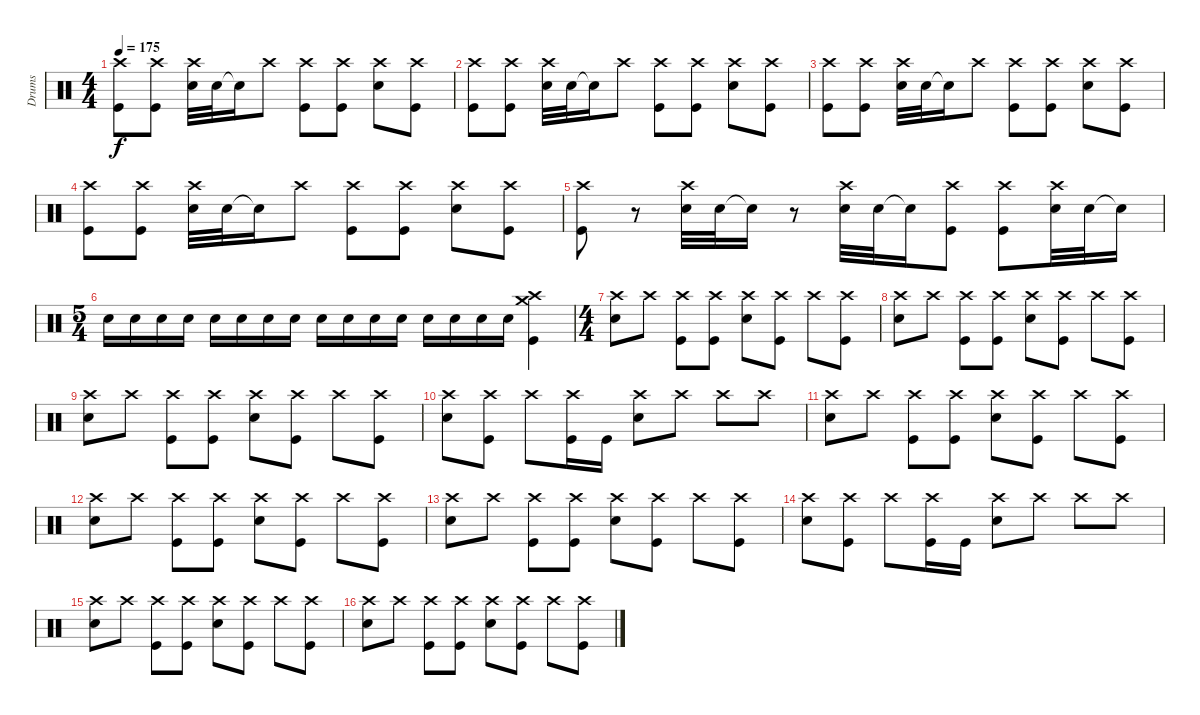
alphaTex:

\track ("Drums" "Drums") {instrument percussion}
\staff {score}
\articulation defaults
\ts (4 4)
\tempo 175
\clef neutral
\ks c
("Crash high (hit)" "Kick (hit)").8{dy f} ("Crash high (hit)" "Kick (hit)").8 ("Crash high (hit)" "Snare (hit) 2").32 "Snare (hit) 2".32 "Snare (hit)"{t}.16 "Crash high (hit)".8 ("Crash high (hit)" "Kick (hit)").8 ("Crash high (hit)" "Kick (hit)").8 ("Crash high (hit)" "Snare (hit) 2").8 ("Crash high (hit)" "Kick (hit)").8 |
("Crash high (hit)" "Kick (hit)").8 ("Crash high (hit)" "Kick (hit)").8 ("Crash high (hit)" "Snare (hit) 2").32 "Snare (hit) 2".32 "Snare (hit)"{t}.16 "Crash high (hit)".8 ("Crash high (hit)" "Kick (hit)").8 ("Crash high (hit)" "Kick (hit)").8 ("Crash high (hit)" "Snare (hit) 2").8 ("Crash high (hit)" "Kick (hit)").8 |
("Crash high (hit)" "Kick (hit)").8 ("Crash high (hit)" "Kick (hit)").8 ("Crash high (hit)" "Snare (hit) 2").32 "Snare (hit) 2".32 "Snare (hit)"{t}.16 "Crash high (hit)".8 ("Crash high (hit)" "Kick (hit)").8 ("Crash high (hit)" "Kick (hit)").8 ("Crash high (hit)" "Snare (hit) 2").8 ("Crash high (hit)" "Kick (hit)").8 |
("Crash high (hit)" "Kick (hit)").8 ("Crash high (hit)" "Kick (hit)").8 ("Crash high (hit)" "Snare (hit) 2").32 "Snare (hit) 2".32 "Snare (hit)"{t}.16 "Crash high (hit)".8 ("Crash high (hit)" "Kick (hit)").8 ("Crash high (hit)" "Kick (hit)").8 ("Crash high (hit)" "Snare (hit) 2").8 ("Crash high (hit)" "Kick (hit)").8 |
("Crash high (hit)" "Kick (hit)").8 r.8 ("Crash high (hit)" "Snare (hit) 2").32 "Snare (hit) 2".32 "Snare (hit)"{t}.16 r.8 ("Crash high (hit)" "Snare (hit) 2").32 "Snare (hit) 2".32 "Snare (hit)"{t}.16 ("Crash high (hit)" "Kick (hit)").8 ("Crash high (hit)" "Kick (hit)").8 ("Crash high (hit)" "Snare (hit) 2").32 "Snare (hit) 2".32 "Snare (hit)"{t}.16 |
\ts (5 4)
"Snare (hit) 2".16 "Snare (hit) 2".16 "Snare (hit) 2".16 "Snare (hit) 2".16 "Snare (hit) 2".16 "Snare (hit) 2".16 "Snare (hit) 2".16 "Snare (hit) 2".16 "Snare (hit) 2".16 "Snare (hit) 2".16 "Snare (hit) 2".16 "Snare (hit) 2".16 "Snare (hit) 2".16 "Snare (hit) 2".16 "Snare (hit) 2".16 "Snare (hit) 2".16 ("Crash medium (hit)" "Crash high (hit)" "Kick (hit)").4 |
\ts (4 4)
("Crash high (hit)" "Snare (hit) 2").8 "Crash high (hit)".8 ("Crash high (hit)" "Kick (hit)").8 ("Crash high (hit)" "Kick (hit)").8 ("Crash high (hit)" "Snare (hit) 2").8 ("Crash high (hit)" "Kick (hit)").8 "Crash high (hit)".8 ("Crash high (hit)" "Kick (hit)").8 |
("Crash high (hit)" "Snare (hit) 2").8 "Crash high (hit)".8 ("Crash high (hit)" "Kick (hit)").8 ("Crash high (hit)" "Kick (hit)").8 ("Crash high (hit)" "Snare (hit) 2").8 ("Crash high (hit)" "Kick (hit)").8 "Crash high (hit)".8 ("Crash high (hit)" "Kick (hit)").8 |
("Crash high (hit)" "Snare (hit) 2").8 "Crash high (hit)".8 ("Crash high (hit)" "Kick (hit)").8 ("Crash high (hit)" "Kick (hit)").8 ("Crash high (hit)" "Snare (hit) 2").8 ("Crash high (hit)" "Kick (hit)").8 "Crash high (hit)".8 ("Crash high (hit)" "Kick (hit)").8 |
("Crash high (hit)" "Snare (hit) 2").8 ("Crash high (hit)" "Kick (hit)").8 "Crash high (hit)".8 ("Crash high (hit)" "Kick (hit)").16 "Kick (hit)".16 ("Crash high (hit)" "Snare (hit) 2").8 "Crash high (hit)".8 "Crash high (hit)".8 "Crash high (hit)".8 |
("Crash high (hit)" "Snare (hit) 2").8 "Crash high (hit)".8 ("Crash high (hit)" "Kick (hit)").8 ("Crash high (hit)" "Kick (hit)").8 ("Crash high (hit)" "Snare (hit) 2").8 ("Crash high (hit)" "Kick (hit)").8 "Crash high (hit)".8 ("Crash high (hit)" "Kick (hit)").8 |
("Crash high (hit)" "Snare (hit) 2").8 "Crash high (hit)".8 ("Crash high (hit)" "Kick (hit)").8 ("Crash high (hit)" "Kick (hit)").8 ("Crash high (hit)" "Snare (hit) 2").8 ("Crash high (hit)" "Kick (hit)").8 "Crash high (hit)".8 ("Crash high (hit)" "Kick (hit)").8 |
("Crash high (hit)" "Snare (hit) 2").8 "Crash high (hit)".8 ("Crash high (hit)" "Kick (hit)").8 ("Crash high (hit)" "Kick (hit)").8 ("Crash high (hit)" "Snare (hit) 2").8 ("Crash high (hit)" "Kick (hit)").8 "Crash high (hit)".8 ("Crash high (hit)" "Kick (hit)").8 |
("Crash high (hit)" "Snare (hit) 2").8 ("Crash high (hit)" "Kick (hit)").8 "Crash high (hit)".8 ("Crash high (hit)" "Kick (hit)").16 "Kick (hit)".16 ("Crash high (hit)" "Snare (hit) 2").8 "Crash high (hit)".8 "Crash high (hit)".8 "Crash high (hit)".8 |
("Crash high (hit)" "Snare (hit) 2").8 "Crash high (hit)".8 ("Crash high (hit)" "Kick (hit)").8 ("Crash high (hit)" "Kick (hit)").8 ("Crash high (hit)" "Snare (hit) 2").8 ("Crash high (hit)" "Kick (hit)").8 "Crash high (hit)".8 ("Crash high (hit)" "Kick (hit)").8 |
("Crash high (hit)" "Snare (hit) 2").8 "Crash high (hit)".8 ("Crash high (hit)" "Kick (hit)").8 ("Crash high (hit)" "Kick (hit)").8 ("Crash high (hit)" "Snare (hit) 2").8 ("Crash high (hit)" "Kick (hit)").8 "Crash high (hit)".8 ("Crash high (hit)" "Kick (hit)").8
